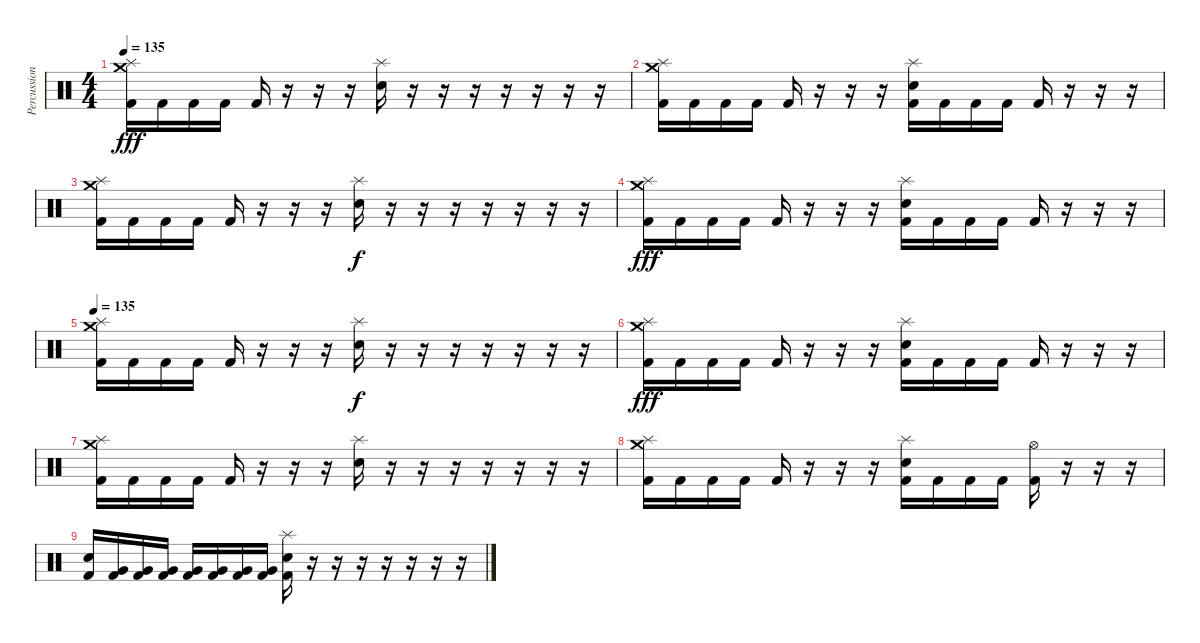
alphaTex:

\track ("Percussion" "Percussion") {instrument percussion}
\staff {score}
\articulation defaults
\ts (4 4)
\tempo 135
\clef neutral
\ks c
("Crash medium (hit)" "Splash (hit)" "Kick (hit) 2").16{dy fff} "Kick (hit) 2".16 "Kick (hit) 2".16 "Kick (hit) 2".16 "Kick (hit) 2".16 r.16 r.16 r.16 ("Splash (hit)" "Electric Snare (hit)").16 r.16 r.16 r.16 r.16 r.16 r.16 r.16 |
("Crash medium (hit)" "Splash (hit)" "Kick (hit) 2").16 "Kick (hit) 2".16 "Kick (hit) 2".16 "Kick (hit) 2".16 "Kick (hit) 2".16 r.16 r.16 r.16 ("Splash (hit)" "Electric Snare (hit)" "Kick (hit) 2").16 "Kick (hit) 2".16 "Kick (hit) 2".16 "Kick (hit) 2".16 "Kick (hit) 2".16 r.16 r.16 r.16 |
("Crash medium (hit)" "Splash (hit)" "Kick (hit) 2").16 "Kick (hit) 2".16 "Kick (hit) 2".16 "Kick (hit) 2".16 "Kick (hit) 2".16 r.16 r.16 r.16 ("Splash (hit)" "Electric Snare (hit)").16{dy f} r.16 r.16 r.16 r.16 r.16 r.16 r.16 |
("Crash medium (hit)" "Splash (hit)" "Kick (hit) 2").16{dy fff} "Kick (hit) 2".16 "Kick (hit) 2".16 "Kick (hit) 2".16 "Kick (hit) 2".16 r.16 r.16 r.16 ("Splash (hit)" "Electric Snare (hit)" "Kick (hit) 2").16 "Kick (hit) 2".16 "Kick (hit) 2".16 "Kick (hit) 2".16 "Kick (hit) 2".16 r.16 r.16 r.16 |
\tempo 135
("Crash medium (hit)" "Splash (hit)" "Kick (hit) 2").16 "Kick (hit) 2".16 "Kick (hit) 2".16 "Kick (hit) 2".16 "Kick (hit) 2".16 r.16 r.16 r.16 ("Splash (hit)" "Electric Snare (hit)").16{dy f} r.16 r.16 r.16 r.16 r.16 r.16 r.16 |
("Crash medium (hit)" "Splash (hit)" "Kick (hit) 2").16{dy fff} "Kick (hit) 2".16 "Kick (hit) 2".16 "Kick (hit) 2".16 "Kick (hit) 2".16 r.16 r.16 r.16 ("Splash (hit)" "Electric Snare (hit)" "Kick (hit) 2").16 "Kick (hit) 2".16 "Kick (hit) 2".16 "Kick (hit) 2".16 "Kick (hit) 2".16 r.16 r.16 r.16 |
("Crash medium (hit)" "Splash (hit)" "Kick (hit) 2").16 "Kick (hit) 2".16 "Kick (hit) 2".16 "Kick (hit) 2".16 "Kick (hit) 2".16 r.16 r.16 r.16 ("Splash (hit)" "Electric Snare (hit)").16 r.16 r.16 r.16 r.16 r.16 r.16 r.16 |
("Crash medium (hit)" "Splash (hit)" "Kick (hit) 2").16 "Kick (hit) 2".16 "Kick (hit) 2".16 "Kick (hit) 2".16 "Kick (hit) 2".16 r.16 r.16 r.16 ("Splash (hit)" "Electric Snare (hit)" "Kick (hit) 2").16 "Kick (hit) 2".16 "Kick (hit) 2".16 "Kick (hit) 2".16 ("Hi-Hat (open)" "Kick (hit) 2").16 r.16 r.16 r.16 |
("Electric Snare (hit)" "Kick (hit) 2").16 ("Very Low Tom (hit)" "Kick (hit) 2").16 ("Very Low Tom (hit)" "Kick (hit) 2").16 ("Very Low Tom (hit)" "Kick (hit) 2").16 ("Very Low Tom (hit)" "Kick (hit) 2").16 ("Very Low Tom (hit)" "Kick (hit) 2").16 ("Very Low Tom (hit)" "Kick (hit) 2").16 ("Very Low Tom (hit)" "Kick (hit) 2").16 ("Splash (hit)" "Electric Snare (hit)" "Kick (hit) 2").16{volume 0} r.16 r.16 r.16 r.16 r.16 r.16 r.16
